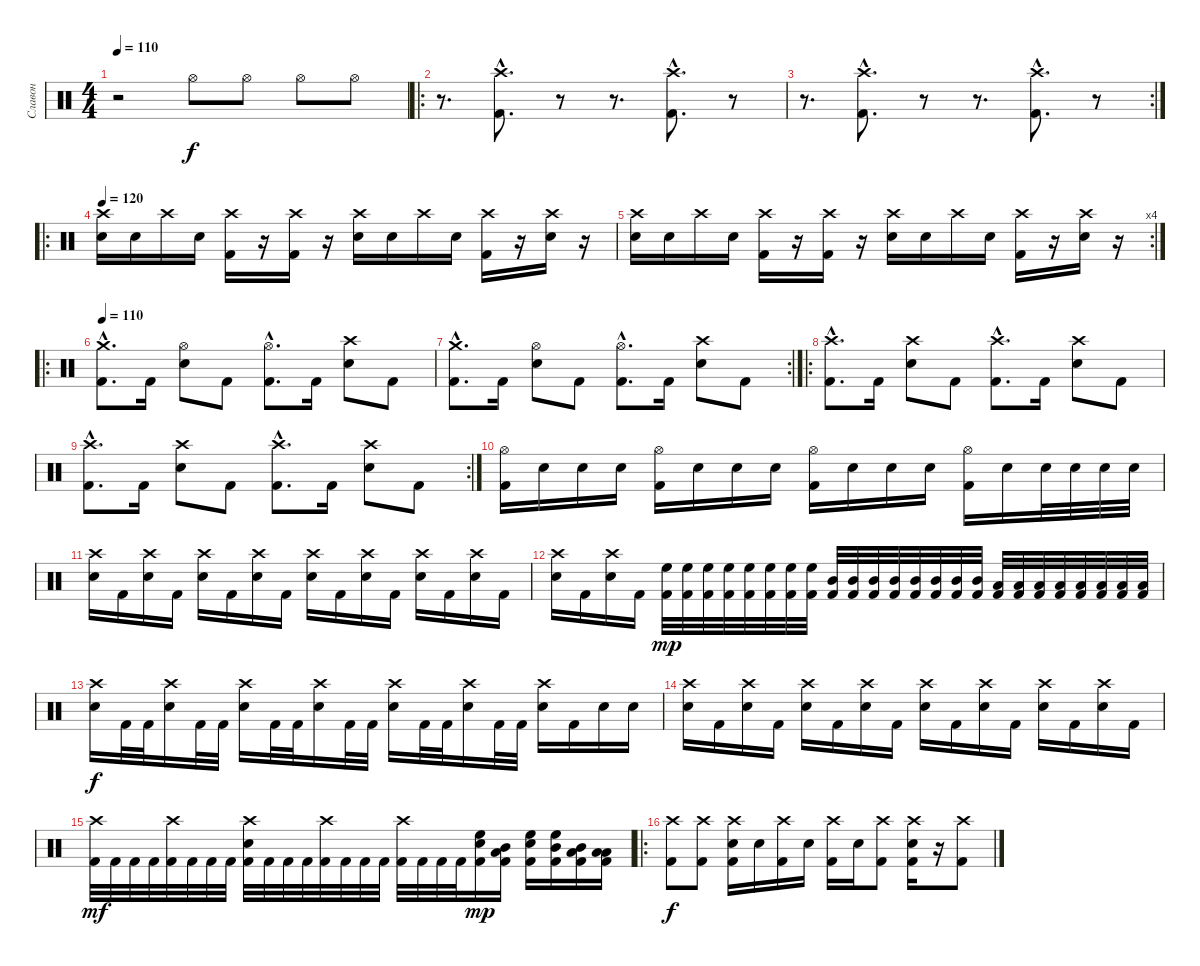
\track ("Славон" "Славон") {instrument percussion}
\staff {score}
\articulation defaults
\ts (4 4)
\tempo 110
\clef neutral
\ks c
r.2{dy f} "Hi-Hat (open)".8 "Hi-Hat (open)".8 "Hi-Hat (open)".8 "Hi-Hat (open)".8 |
\ro
r.8{d} ("Crash high (hit)"{hac} "Kick (hit) 2"{hac}).8{d} r.8 r.8{d} ("Crash high (hit)"{hac} "Kick (hit) 2"{hac}).8{d} r.8 |
\rc 2
r.8{d} ("Crash high (hit)"{hac} "Kick (hit) 2"{hac}).8{d} r.8 r.8{d} ("Crash high (hit)"{hac} "Kick (hit) 2"{hac}).8{d} r.8 |
\ro
\tempo 120
("Crash high (hit)" "Snare (hit) 2").16 "Snare (hit) 2".16 "Crash high (hit)".16 "Snare (hit) 2".16 ("Crash high (hit)" "Kick (hit) 2").16 r.16 ("Crash high (hit)" "Kick (hit) 2").16 r.16 ("Crash high (hit)" "Snare (hit) 2").16 "Snare (hit) 2".16 "Crash high (hit)".16 "Snare (hit) 2".16 ("Crash high (hit)" "Kick (hit) 2").16 r.16 ("Crash high (hit)" "Snare (hit) 2").16 r.16 |
\rc 4
("Crash high (hit)" "Snare (hit) 2").16 "Snare (hit) 2".16 "Crash high (hit)".16 "Snare (hit) 2".16 ("Crash high (hit)" "Kick (hit) 2").16 r.16 ("Crash high (hit)" "Kick (hit) 2").16 r.16 ("Crash high (hit)" "Snare (hit) 2").16 "Snare (hit) 2".16 "Crash high (hit)".16 "Snare (hit) 2".16 ("Crash high (hit)" "Kick (hit) 2").16 r.16 ("Crash high (hit)" "Snare (hit) 2").16 r.16 |
\ro
\tempo 110
("Crash medium (hit)"{hac} "Kick (hit) 2"{hac}).8{d} "Kick (hit) 2".16 ("Hi-Hat (open)" "Snare (hit) 2").8 "Kick (hit) 2".8 ("Hi-Hat (open)"{hac} "Kick (hit) 2"{hac}).8{d} "Kick (hit) 2".16 ("Crash high (hit)" "Snare (hit) 2").8 "Kick (hit) 2".8 |
\rc 2
("Crash medium (hit)"{hac} "Kick (hit) 2"{hac}).8{d} "Kick (hit) 2".16 ("Hi-Hat (open)" "Snare (hit) 2").8 "Kick (hit) 2".8 ("Hi-Hat (open)"{hac} "Kick (hit) 2"{hac}).8{d} "Kick (hit) 2".16 ("Crash high (hit)" "Snare (hit) 2").8 "Kick (hit) 2".8 |
\ro
("Crash high (hit)"{hac} "Kick (hit) 2"{hac}).8{d} "Kick (hit) 2".16 ("Crash high (hit)" "Snare (hit) 2").8 "Kick (hit) 2".8 ("Crash high (hit)"{hac} "Kick (hit) 2"{hac}).8{d} "Kick (hit) 2".16 ("Crash high (hit)" "Snare (hit) 2").8 "Kick (hit) 2".8 |
\rc 2
("Crash high (hit)"{hac} "Kick (hit) 2"{hac}).8{d} "Kick (hit) 2".16 ("Crash high (hit)" "Snare (hit) 2").8 "Kick (hit) 2".8 ("Crash high (hit)"{hac} "Kick (hit) 2"{hac}).8{d} "Kick (hit) 2".16 ("Crash high (hit)" "Snare (hit) 2").8 "Kick (hit) 2".8 |
("Hi-Hat (open)" "Kick (hit) 2").16 "Snare (hit) 2".16 "Snare (hit) 2".16 "Snare (hit) 2".16 ("Hi-Hat (open)" "Kick (hit) 2").16 "Snare (hit) 2".16 "Snare (hit) 2".16 "Snare (hit) 2".16 ("Hi-Hat (open)" "Kick (hit) 2").16 "Snare (hit) 2".16 "Snare (hit) 2".16 "Snare (hit) 2".16 ("Hi-Hat (open)" "Kick (hit) 2").16 "Snare (hit) 2".16 "Snare (hit) 2".32 "Snare (hit) 2".32 "Snare (hit) 2".32 "Snare (hit) 2".32 |
("Crash high (hit)" "Snare (hit) 2").16 "Kick (hit) 2".16 ("Crash high (hit)" "Snare (hit) 2").16 "Kick (hit) 2".16 ("Crash high (hit)" "Snare (hit) 2").16 "Kick (hit) 2".16 ("Crash high (hit)" "Snare (hit) 2").16 "Kick (hit) 2".16 ("Crash high (hit)" "Snare (hit) 2").16 "Kick (hit) 2".16 ("Crash high (hit)" "Snare (hit) 2").16 "Kick (hit) 2".16 ("Crash high (hit)" "Snare (hit) 2").16 "Kick (hit) 2".16 ("Crash high (hit)" "Snare (hit) 2").16 "Kick (hit) 2".16 |
("Crash high (hit)" "Snare (hit) 2").16 "Kick (hit) 2".16 ("Crash high (hit)" "Snare (hit) 2").16 "Kick (hit) 2".16 ("High Floor Tom (hit)" "Kick (hit) 2").32{dy mp} ("High Floor Tom (hit)" "Kick (hit) 2").32 ("High Floor Tom (hit)" "Kick (hit) 2").32 ("High Floor Tom (hit)" "Kick (hit) 2").32 ("High Floor Tom (hit)" "Kick (hit) 2").32 ("High Floor Tom (hit)" "Kick (hit) 2").32 ("High Floor Tom (hit)" "Kick (hit) 2").32 ("High Floor Tom (hit)" "Kick (hit) 2").32 ("Mid Tom (hit)" "Kick (hit) 2").32 ("Mid Tom (hit)" "Kick (hit) 2").32 ("Mid Tom (hit)" "Kick (hit) 2").32 ("Mid Tom (hit)" "Kick (hit) 2").32 ("Mid Tom (hit)" "Kick (hit) 2").32 ("Mid Tom (hit)" "Kick (hit) 2").32 ("Mid Tom (hit)" "Kick (hit) 2").32 ("Mid Tom (hit)" "Kick (hit) 2").32 ("Low Tom (hit)" "Kick (hit) 2").32 ("Low Tom (hit)" "Kick (hit) 2").32 ("Low Tom (hit)" "Kick (hit) 2").32 ("Low Tom (hit)" "Kick (hit) 2").32 ("Low Tom (hit)" "Kick (hit) 2").32 ("Low Tom (hit)" "Kick (hit) 2").32 ("Low Tom (hit)" "Kick (hit) 2").32 ("Low Tom (hit)" "Kick (hit) 2").32 |
("Crash high (hit)" "Snare (hit) 2").16{dy f} "Kick (hit) 2".32 "Kick (hit) 2".32 ("Crash high (hit)" "Snare (hit) 2").16 "Kick (hit) 2".32 "Kick (hit) 2".32 ("Crash high (hit)" "Snare (hit) 2").16 "Kick (hit) 2".32 "Kick (hit) 2".32 ("Crash high (hit)" "Snare (hit) 2").16 "Kick (hit) 2".32 "Kick (hit) 2".32 ("Crash high (hit)" "Snare (hit) 2").16 "Kick (hit) 2".32 "Kick (hit) 2".32 ("Crash high (hit)" "Snare (hit) 2").16 "Kick (hit) 2".32 "Kick (hit) 2".32 ("Crash high (hit)" "Snare (hit) 2").16 "Kick (hit) 2".16 "Snare (hit) 2".16 "Snare (hit) 2".16 |
("Crash high (hit)" "Snare (hit) 2").16 "Kick (hit) 2".16 ("Crash high (hit)" "Snare (hit) 2").16 "Kick (hit) 2".16 ("Crash high (hit)" "Snare (hit) 2").16 "Kick (hit) 2".16 ("Crash high (hit)" "Snare (hit) 2").16 "Kick (hit) 2".16 ("Crash high (hit)" "Snare (hit) 2").16 "Kick (hit) 2".16 ("Crash high (hit)" "Snare (hit) 2").16 "Kick (hit) 2".16 ("Crash high (hit)" "Snare (hit) 2").16 "Kick (hit) 2".16 ("Crash high (hit)" "Snare (hit) 2").16 "Kick (hit) 2".16 |
("Crash high (hit)" "Kick (hit) 2").32{dy mf} "Kick (hit) 2".32 "Kick (hit) 2".32 "Kick (hit) 2".32 ("Crash high (hit)" "Kick (hit) 2").32 "Kick (hit) 2".32 "Kick (hit) 2".32 "Kick (hit) 2".32 ("Crash high (hit)" "Kick (hit) 2" "Snare (hit) 2").32 "Kick (hit) 2".32 "Kick (hit) 2".32 "Kick (hit) 2".32 ("Crash high (hit)" "Kick (hit) 2").32 "Kick (hit) 2".32 "Kick (hit) 2".32 "Kick (hit) 2".32 ("Crash high (hit)" "Kick (hit) 2").32 "Kick (hit) 2".32 "Kick (hit) 2".32 "Kick (hit) 2".32 ("High Floor Tom (hit)" "Snare (hit) 2" "Kick (hit) 2").16{dy mp} ("Low Tom (hit)" "Mid Tom (hit)" "Kick (hit) 2").16 ("High Floor Tom (hit)" "Snare (hit) 2" "Kick (hit) 2").16 ("Mid Tom (hit)" "High Floor Tom (hit)" "Kick (hit) 2").16 ("Low Tom (hit)" "Mid Tom (hit)" "Kick (hit) 2").16 ("Low Floor Tom (hit)" "Low Tom (hit)" "Kick (hit) 2").16 |
\ro
("Crash high (hit)" "Kick (hit) 2").8{dy f} ("Crash high (hit)" "Kick (hit) 2").8 ("Crash high (hit)" "Snare (hit) 2" "Kick (hit) 2").16 "Snare (hit) 2".16 ("Crash high (hit)" "Kick (hit) 2").16 "Snare (hit) 2".16 ("Crash high (hit)" "Kick (hit) 2").16 "Snare (hit) 2".16 ("Crash high (hit)" "Kick (hit) 2").8 ("Crash high (hit)" "Snare (hit) 2" "Kick (hit) 2").16 r.16 ("Crash high (hit)" "Kick (hit) 2").8
